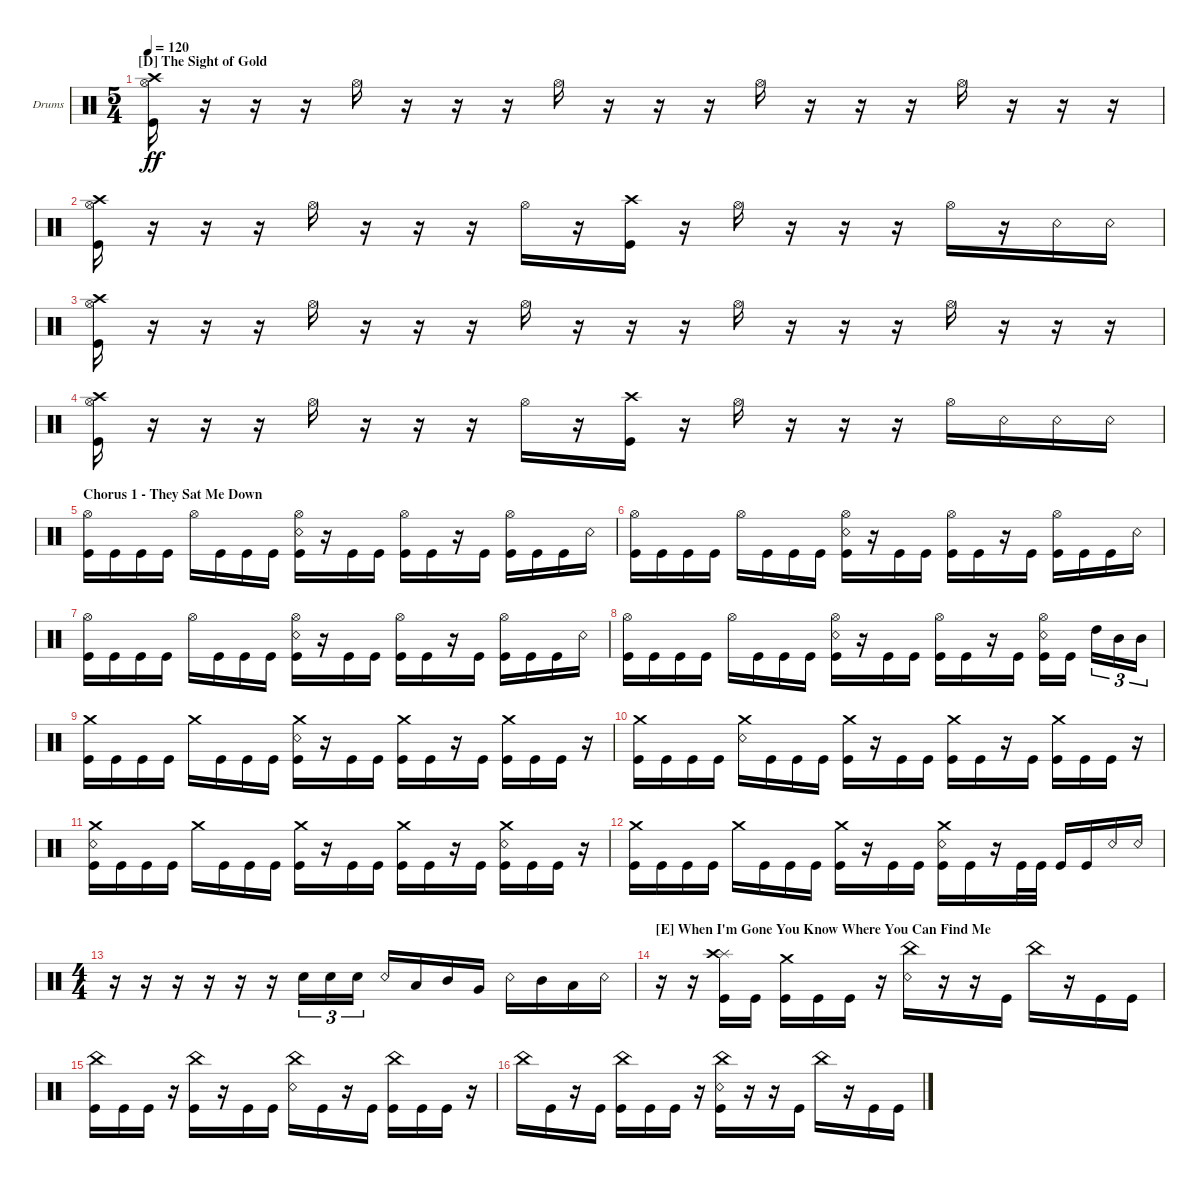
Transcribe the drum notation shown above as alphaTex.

\defaultSystemsLayout 4
\bracketExtendMode groupsimilarinstruments
\firstSystemTrackNameOrientation horizontal
\otherSystemsTrackNameOrientation horizontal
\track ("Drumkit" "Drums") {instrument percussion}
\staff {score}
\articulation defaults
\ts (5 4)
\section ("D" "The Sight of Gold")
\tempo 120
\clef neutral
\ks c
("Crash high (hit)" "Hi-Hat (open)" "Kick (hit)").16{dy ff} r.16 r.16 r.16 "Hi-Hat (open)".16 r.16 r.16 r.16 "Hi-Hat (open)".16 r.16 r.16 r.16 "Hi-Hat (open)".16 r.16 r.16 r.16 "Hi-Hat (open)".16 r.16 r.16 r.16 |
("Crash high (hit)" "Hi-Hat (open)" "Kick (hit)").16 r.16 r.16 r.16 "Hi-Hat (open)".16 r.16 r.16 r.16 "Hi-Hat (open)".16 r.16 ("Crash high (hit)" "Kick (hit)").16 r.16 "Hi-Hat (open)".16 r.16 r.16 r.16 "Hi-Hat (open)".16 r.16 "Snare (rim shot)".16 "Snare (rim shot)".16 |
("Crash high (hit)" "Hi-Hat (open)" "Kick (hit)").16 r.16 r.16 r.16 "Hi-Hat (open)".16 r.16 r.16 r.16 "Hi-Hat (open)".16 r.16 r.16 r.16 "Hi-Hat (open)".16 r.16 r.16 r.16 "Hi-Hat (open)".16 r.16 r.16 r.16 |
("Crash high (hit)" "Hi-Hat (open)" "Kick (hit)").16 r.16 r.16 r.16 "Hi-Hat (open)".16 r.16 r.16 r.16 "Hi-Hat (open)".16 r.16 ("Crash high (hit)" "Kick (hit)").16 r.16 "Hi-Hat (open)".16 r.16 r.16 r.16 "Hi-Hat (open)".16 "Snare (rim shot)".16 "Snare (rim shot)".16 "Snare (rim shot)".16 |
\section ("" "Chorus 1 - They Sat Me Down")
("Hi-Hat (open)" "Kick (hit)").16 "Kick (hit)".16 "Kick (hit)".16 "Kick (hit)".16 "Hi-Hat (open)".16 "Kick (hit)".16 "Kick (hit)".16 "Kick (hit)".16 ("Hi-Hat (open)" "Snare (rim shot)" "Kick (hit)").16 r.16 "Kick (hit)".16 "Kick (hit)".16 ("Hi-Hat (open)" "Kick (hit)").16 "Kick (hit)".16 r.16 "Kick (hit)".16 ("Hi-Hat (open)" "Kick (hit)").16 "Kick (hit)".16 "Kick (hit)".16 "Snare (rim shot)".16 |
("Hi-Hat (open)" "Kick (hit)").16 "Kick (hit)".16 "Kick (hit)".16 "Kick (hit)".16 "Hi-Hat (open)".16 "Kick (hit)".16 "Kick (hit)".16 "Kick (hit)".16 ("Hi-Hat (open)" "Kick (hit)" "Snare (rim shot)").16 r.16 "Kick (hit)".16 "Kick (hit)".16 ("Hi-Hat (open)" "Kick (hit)").16 "Kick (hit)".16 r.16 "Kick (hit)".16 ("Hi-Hat (open)" "Kick (hit)").16 "Kick (hit)".16 "Kick (hit)".16 "Snare (rim shot)".16 |
("Hi-Hat (open)" "Kick (hit)").16 "Kick (hit)".16 "Kick (hit)".16 "Kick (hit)".16 "Hi-Hat (open)".16 "Kick (hit)".16 "Kick (hit)".16 "Kick (hit)".16 ("Hi-Hat (open)" "Snare (rim shot)" "Kick (hit)").16 r.16 "Kick (hit)".16 "Kick (hit)".16 ("Hi-Hat (open)" "Kick (hit)").16 "Kick (hit)".16 r.16 "Kick (hit)".16 ("Hi-Hat (open)" "Kick (hit)").16 "Kick (hit)".16 "Kick (hit)".16 "Snare (rim shot)".16 |
("Hi-Hat (open)" "Kick (hit)").16 "Kick (hit)".16 "Kick (hit)".16 "Kick (hit)".16 "Hi-Hat (open)".16 "Kick (hit)".16 "Kick (hit)".16 "Kick (hit)".16 ("Hi-Hat (open)" "Snare (rim shot)" "Kick (hit)").16 r.16 "Kick (hit)".16 "Kick (hit)".16 ("Hi-Hat (open)" "Kick (hit)").16 "Kick (hit)".16 r.16 "Kick (hit)".16 ("Hi-Hat (open)" "Kick (hit)" "Snare (rim shot)").16 "Kick (hit)".16 "High Tom (hit)".16{tu (3 2)} "Mid Tom (hit)".16{tu (3 2)} "Mid Tom (hit)".16{tu (3 2)} |
("Crash medium (hit)" "Kick (hit)").16 "Kick (hit)".16 "Kick (hit)".16 "Kick (hit)".16 "Crash medium (hit)".16 "Kick (hit)".16 "Kick (hit)".16 "Kick (hit)".16 ("Crash medium (hit)" "Kick (hit)" "Snare (rim shot)").16 r.16 "Kick (hit)".16 "Kick (hit)".16 ("Crash medium (hit)" "Kick (hit)").16 "Kick (hit)".16 r.16 "Kick (hit)".16 ("Crash medium (hit)" "Kick (hit)").16 "Kick (hit)".16 "Kick (hit)".16 r.16 |
("Crash medium (hit)" "Kick (hit)").16 "Kick (hit)".16 "Kick (hit)".16 "Kick (hit)".16 ("Crash medium (hit)" "Snare (rim shot)").16 "Kick (hit)".16 "Kick (hit)".16 "Kick (hit)".16 ("Crash medium (hit)" "Kick (hit)").16 r.16 "Kick (hit)".16 "Kick (hit)".16 ("Crash medium (hit)" "Kick (hit)").16 "Kick (hit)".16 r.16 "Kick (hit)".16 ("Crash medium (hit)" "Kick (hit)").16 "Kick (hit)".16 "Kick (hit)".16 r.16 |
("Snare (rim shot)" "Crash medium (hit)" "Kick (hit)").16 "Kick (hit)".16 "Kick (hit)".16 "Kick (hit)".16 "Crash medium (hit)".16 "Kick (hit)".16 "Kick (hit)".16 "Kick (hit)".16 ("Crash medium (hit)" "Kick (hit)").16 r.16 "Kick (hit)".16 "Kick (hit)".16 ("Crash medium (hit)" "Kick (hit)").16 "Kick (hit)".16 r.16 "Kick (hit)".16 ("Crash medium (hit)" "Kick (hit)" "Snare (rim shot)").16 "Kick (hit)".16 "Kick (hit)".16 r.16 |
("Crash medium (hit)" "Kick (hit)").16 "Kick (hit)".16 "Kick (hit)".16 "Kick (hit)".16 "Crash medium (hit)".16 "Kick (hit)".16 "Kick (hit)".16 "Kick (hit)".16 ("Crash medium (hit)" "Kick (hit)").16 r.16 "Kick (hit)".16 "Kick (hit)".16 ("Crash medium (hit)" "Kick (hit)" "Snare (rim shot)").16 "Kick (hit)".16 r.16 "Kick (hit)".32 "Kick (hit)".32 "Kick (hit)".16 "Kick (hit)".16 "Snare (rim shot)".16 "Snare (rim shot)".16 |
\ts (4 4)
r.16 r.16 r.16 r.16 r.16 r.16 "Snare (hit) 2".16{tu (3 2)} "Snare (hit) 2".16{tu (3 2)} "Snare (hit) 2".16{tu (3 2)} "Snare (rim shot)".16 "Low Tom (hit)".16 "Mid Tom (hit)".16 "Very Low Tom (hit)".16 "Snare (rim shot)".16 "Mid Tom (hit)".16 "Low Tom (hit)".16 "Snare (rim shot)".16 |
\section ("E" "When I'm Gone You Know Where You Can Find Me")
r.16 r.16 ("Splash (hit)" "Crash high (hit)" "Kick (hit)").16 "Kick (hit)".16 ("Crash medium (hit)" "Kick (hit)").16 "Kick (hit)".16 "Kick (hit)".16 r.16 ("China (hit)" "Snare (rim shot)").16 r.16 r.16 "Kick (hit)".16 "China (hit)".16 r.16 "Kick (hit)".16 "Kick (hit)".16 |
("Kick (hit)" "China (hit)").16 "Kick (hit)".16 "Kick (hit)".16 r.16 ("China (hit)" "Kick (hit)").16 r.16 "Kick (hit)".16 "Kick (hit)".16 ("China (hit)" "Snare (rim shot)").16 "Kick (hit)".16 r.16 "Kick (hit)".16 ("China (hit)" "Kick (hit)").16 "Kick (hit)".16 "Kick (hit)".16 r.16 |
"China (hit)".16 "Kick (hit)".16 r.16 "Kick (hit)".16 ("China (hit)" "Kick (hit)").16 "Kick (hit)".16 "Kick (hit)".16 r.16 ("China (hit)" "Snare (rim shot)" "Kick (hit)").16 r.16 r.16 "Kick (hit)".16 "China (hit)".16 r.16 "Kick (hit)".16 "Kick (hit)".16
